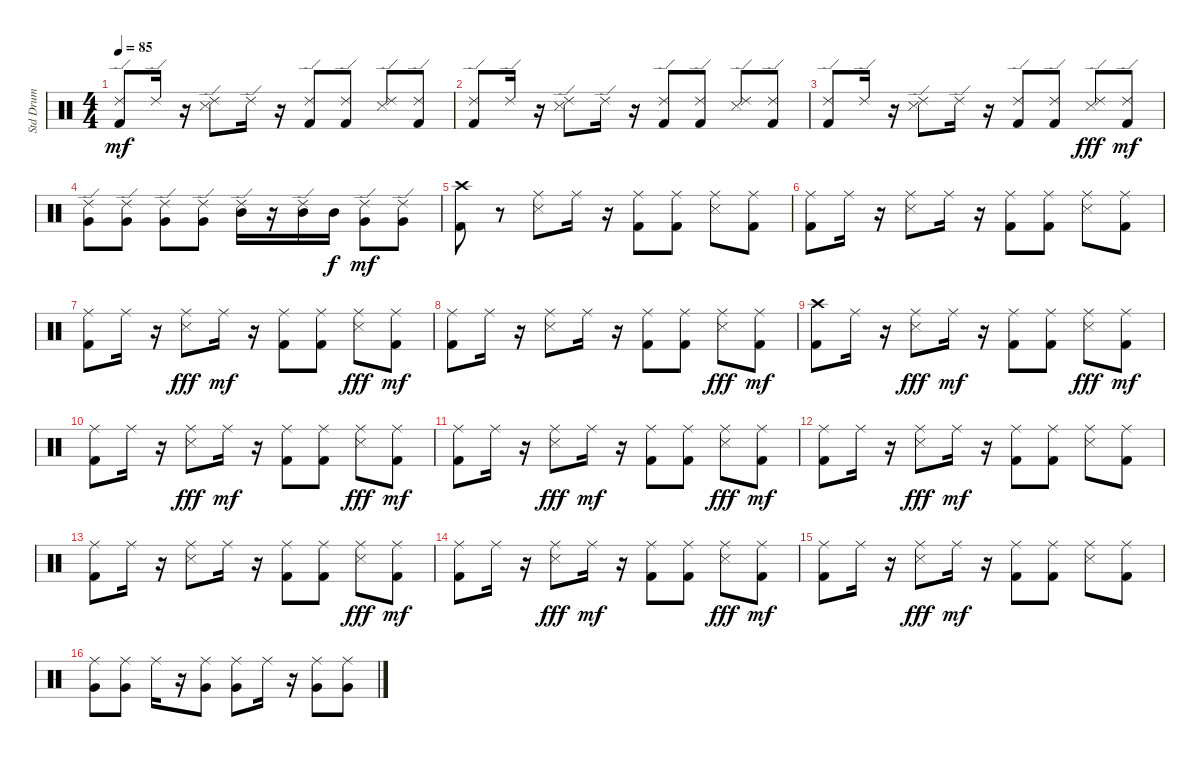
\track ("Std Drum" "Std Drum") {instrument percussion}
\staff {score}
\articulation defaults
\ts (4 4)
\tempo 85
\clef neutral
\ks c
("Kick (hit) 2" "Ride (edge) 2").8{dy mf} "Ride (edge) 2".16 r.16 ("Snare (side stick) 3" "Ride (edge) 2").8 "Ride (edge) 2".16 r.16 ("Kick (hit) 2" "Ride (edge) 2").8 ("Ride (edge) 2" "Kick (hit) 2").8 ("Snare (side stick) 3" "Ride (edge) 2").8 ("Kick (hit) 2" "Ride (edge) 2").8 |
("Ride (edge) 2" "Kick (hit) 2").8 "Ride (edge) 2".16 r.16 ("Snare (side stick) 3" "Ride (edge) 2").8 "Ride (edge) 2".16 r.16 ("Ride (edge) 2" "Kick (hit) 2").8 ("Kick (hit) 2" "Ride (edge) 2").8 ("Snare (side stick) 3" "Ride (edge) 2").8 ("Kick (hit) 2" "Ride (edge) 2").8 |
("Kick (hit) 2" "Ride (edge) 2").8 "Ride (edge) 2".16 r.16 ("Snare (side stick) 3" "Ride (edge) 2").8 "Ride (edge) 2".16 r.16 ("Ride (edge) 2" "Kick (hit) 2").8 ("Kick (hit) 2" "Ride (edge) 2").8 ("Ride (edge) 2" "Snare (side stick) 3").8{dy fff} ("Ride (edge) 2" "Kick (hit) 2").8{dy mf} |
("Very Low Tom (hit)" "Ride (edge) 2").8 ("Ride (edge) 2" "Very Low Tom (hit)").8 ("Very Low Tom (hit)" "Ride (edge) 2").8 ("Ride (edge) 2" "Very Low Tom (hit)").8 ("Ride (edge) 2" "Mid Tom (hit)").16 r.16 ("Mid Tom (hit)" "Ride (edge) 2").16 "Mid Tom (hit)".16{dy f} ("Ride (edge) 2" "Very Low Tom (hit)").8{dy mf} ("Very Low Tom (hit)" "Ride (edge) 2").8 |
("Crash high (hit)" "Kick (hit) 2").8 r.8 ("Snare (side stick) 3" "Ride (middle)").8 "Ride (middle)".16 r.16 ("Ride (middle)" "Kick (hit) 2").8 ("Kick (hit) 2" "Ride (middle)").8 ("Snare (side stick) 3" "Ride (middle)").8 ("Ride (middle)" "Kick (hit) 2").8 |
("Ride (middle)" "Kick (hit) 2").8 "Ride (middle)".16 r.16 ("Snare (side stick) 3" "Ride (middle)").8 "Ride (middle)".16 r.16 ("Kick (hit) 2" "Ride (middle)").8 ("Ride (middle)" "Kick (hit) 2").8 ("Snare (side stick) 3" "Ride (middle)").8 ("Ride (middle)" "Kick (hit) 2").8 |
("Kick (hit) 2" "Ride (middle)").8 "Ride (middle)".16 r.16 ("Ride (middle)" "Snare (side stick) 3").8{dy fff} "Ride (middle)".16{dy mf} r.16 ("Ride (middle)" "Kick (hit) 2").8 ("Kick (hit) 2" "Ride (middle)").8 ("Ride (middle)" "Snare (side stick) 3").8{dy fff} ("Ride (middle)" "Kick (hit) 2").8{dy mf} |
("Kick (hit) 2" "Ride (middle)").8 "Ride (middle)".16 r.16 ("Snare (side stick) 3" "Ride (middle)").8 "Ride (middle)".16 r.16 ("Kick (hit) 2" "Ride (middle)").8 ("Kick (hit) 2" "Ride (middle)").8 ("Ride (middle)" "Snare (side stick) 3").8{dy fff} ("Ride (middle)" "Kick (hit) 2").8{dy mf} |
("Kick (hit) 2" "Crash high (hit)").8 "Ride (middle)".16 r.16 ("Ride (middle)" "Snare (side stick) 3").8{dy fff} "Ride (middle)".16{dy mf} r.16 ("Kick (hit) 2" "Ride (middle)").8 ("Kick (hit) 2" "Ride (middle)").8 ("Ride (middle)" "Snare (side stick) 3").8{dy fff} ("Ride (middle)" "Kick (hit) 2").8{dy mf} |
("Kick (hit) 2" "Ride (middle)").8 "Ride (middle)".16 r.16 ("Ride (middle)" "Snare (side stick) 3").8{dy fff} "Ride (middle)".16{dy mf} r.16 ("Kick (hit) 2" "Ride (middle)").8 ("Kick (hit) 2" "Ride (middle)").8 ("Ride (middle)" "Snare (side stick) 3").8{dy fff} ("Kick (hit) 2" "Ride (middle)").8{dy mf} |
("Ride (middle)" "Kick (hit) 2").8 "Ride (middle)".16 r.16 ("Ride (middle)" "Snare (side stick) 3").8{dy fff} "Ride (middle)".16{dy mf} r.16 ("Ride (middle)" "Kick (hit) 2").8 ("Ride (middle)" "Kick (hit) 2").8 ("Ride (middle)" "Snare (side stick) 3").8{dy fff} ("Ride (middle)" "Kick (hit) 2").8{dy mf} |
("Kick (hit) 2" "Ride (middle)").8 "Ride (middle)".16 r.16 ("Ride (middle)" "Snare (side stick) 3").8{dy fff} "Ride (middle)".16{dy mf} r.16 ("Ride (middle)" "Kick (hit) 2").8 ("Kick (hit) 2" "Ride (middle)").8 ("Snare (side stick) 3" "Ride (middle)").8 ("Ride (middle)" "Kick (hit) 2").8 |
("Kick (hit) 2" "Ride (middle)").8 "Ride (middle)".16 r.16 ("Snare (side stick) 3" "Ride (middle)").8 "Ride (middle)".16 r.16 ("Ride (middle)" "Kick (hit) 2").8 ("Kick (hit) 2" "Ride (middle)").8 ("Ride (middle)" "Snare (side stick) 3").8{dy fff} ("Kick (hit) 2" "Ride (middle)").8{dy mf} |
("Ride (middle)" "Kick (hit) 2").8 "Ride (middle)".16 r.16 ("Ride (middle)" "Snare (side stick) 3").8{dy fff} "Ride (middle)".16{dy mf} r.16 ("Kick (hit) 2" "Ride (middle)").8 ("Kick (hit) 2" "Ride (middle)").8 ("Ride (middle)" "Snare (side stick) 3").8{dy fff} ("Ride (middle)" "Kick (hit) 2").8{dy mf} |
("Kick (hit) 2" "Ride (middle)").8 "Ride (middle)".16 r.16 ("Ride (middle)" "Snare (side stick) 3").8{dy fff} "Ride (middle)".16{dy mf} r.16 ("Kick (hit) 2" "Ride (middle)").8 ("Kick (hit) 2" "Ride (middle)").8 ("Snare (side stick) 3" "Ride (middle)").8 ("Kick (hit) 2" "Ride (middle)").8 |
("Ride (middle)" "Very Low Tom (hit)").8 ("Ride (middle)" "Very Low Tom (hit)").8 "Ride (middle)".16 r.16 ("Very Low Tom (hit)" "Ride (middle)").8 ("Ride (middle)" "Very Low Tom (hit)").8 "Ride (middle)".16 r.16 ("Ride (middle)" "Very Low Tom (hit)").8 ("Very Low Tom (hit)" "Ride (middle)").8
